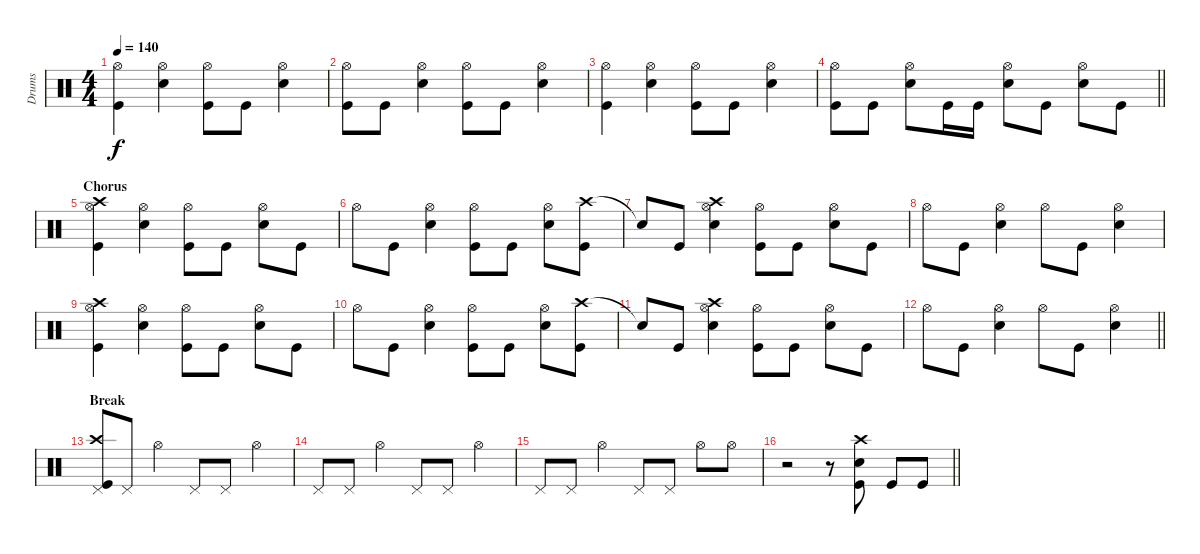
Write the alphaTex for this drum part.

\track ("Drums" "Drums") {instrument percussion}
\staff {score}
\articulation defaults
\ts (4 4)
\tempo 140
\clef neutral
\ks c
("Hi-Hat (open)" "Kick (hit)").4{dy f} ("Hi-Hat (open)" "Electric Snare (hit)").4 ("Hi-Hat (open)" "Kick (hit)").8 "Kick (hit)".8 ("Hi-Hat (open)" "Electric Snare (hit)").4 |
("Hi-Hat (open)" "Kick (hit)").8 "Kick (hit)".8 ("Hi-Hat (open)" "Electric Snare (hit)").4 ("Hi-Hat (open)" "Kick (hit)").8 "Kick (hit)".8 ("Hi-Hat (open)" "Electric Snare (hit)").4 |
("Hi-Hat (open)" "Kick (hit)").4 ("Hi-Hat (open)" "Electric Snare (hit)").4 ("Hi-Hat (open)" "Kick (hit)").8 "Kick (hit)".8 ("Hi-Hat (open)" "Electric Snare (hit)").4 |
\barLineRight lightlight
("Hi-Hat (open)" "Kick (hit)").8 "Kick (hit)".8 ("Hi-Hat (open)" "Electric Snare (hit)").8 "Kick (hit)".16 "Kick (hit)".16 ("Hi-Hat (open)" "Electric Snare (hit)").8 "Kick (hit)".8 ("Hi-Hat (open)" "Electric Snare (hit)").8 "Kick (hit)".8 |
\section ("" "Chorus")
("Crash high (hit)" "Hi-Hat (open)" "Kick (hit)").4 ("Hi-Hat (open)" "Electric Snare (hit)").4 ("Hi-Hat (open)" "Kick (hit)").8 "Kick (hit)".8 ("Hi-Hat (open)" "Electric Snare (hit)").8 "Kick (hit)".8 |
"Hi-Hat (open)".8 "Kick (hit)".8 ("Hi-Hat (open)" "Electric Snare (hit)").4 ("Hi-Hat (open)" "Kick (hit)").8 "Kick (hit)".8 ("Hi-Hat (open)" "Electric Snare (hit)").8 ("Crash high (hit)" "Kick (hit)").8 |
"Snare (hit)"{t}.8 "Kick (hit)".8 ("Crash high (hit)" "Hi-Hat (open)" "Electric Snare (hit)").4 ("Hi-Hat (open)" "Kick (hit)").8 "Kick (hit)".8 ("Hi-Hat (open)" "Electric Snare (hit)").8 "Kick (hit)".8 |
"Hi-Hat (open)".8 "Kick (hit)".8 ("Hi-Hat (open)" "Electric Snare (hit)").4 "Hi-Hat (open)".8 "Kick (hit)".8 ("Hi-Hat (open)" "Electric Snare (hit)").4 |
("Crash high (hit)" "Hi-Hat (open)" "Kick (hit)").4 ("Hi-Hat (open)" "Electric Snare (hit)").4 ("Hi-Hat (open)" "Kick (hit)").8 "Kick (hit)".8 ("Hi-Hat (open)" "Electric Snare (hit)").8 "Kick (hit)".8 |
"Hi-Hat (open)".8 "Kick (hit)".8 ("Hi-Hat (open)" "Electric Snare (hit)").4 ("Hi-Hat (open)" "Kick (hit)").8 "Kick (hit)".8 ("Hi-Hat (open)" "Electric Snare (hit)").8 ("Crash high (hit)" "Kick (hit)").8 |
"Snare (hit)"{t}.8 "Kick (hit)".8 ("Crash high (hit)" "Hi-Hat (open)" "Electric Snare (hit)").4 ("Hi-Hat (open)" "Kick (hit)").8 "Kick (hit)".8 ("Hi-Hat (open)" "Electric Snare (hit)").8 "Kick (hit)".8 |
\barLineRight lightlight "Hi-Hat (open)".8 "Kick (hit)".8
("Hi-Hat (open)" "Electric Snare (hit)").4 "Hi-Hat (open)".8 "Kick (hit)".8 ("Hi-Hat (open)" "Electric Snare (hit)").4 |
\section ("" "Break")
("Crash high (hit)" "Pedal Hi-Hat (hit)" "Kick (hit)").8 "Pedal Hi-Hat (hit)".8 "Hi-Hat (open)".4 "Pedal Hi-Hat (hit)".8 "Pedal Hi-Hat (hit)".8 "Hi-Hat (open)".4 |
"Pedal Hi-Hat (hit)".8 "Pedal Hi-Hat (hit)".8 "Hi-Hat (open)".4 "Pedal Hi-Hat (hit)".8 "Pedal Hi-Hat (hit)".8 "Hi-Hat (open)".4 |
"Pedal Hi-Hat (hit)".8 "Pedal Hi-Hat (hit)".8 "Hi-Hat (open)".4 "Pedal Hi-Hat (hit)".8 "Pedal Hi-Hat (hit)".8 "Hi-Hat (open)".8 "Hi-Hat (open)".8 |
\barLineRight lightlight
r.2 r.8 ("Crash high (hit)" "Electric Snare (hit)" "Kick (hit)").8 "Kick (hit)".8 "Kick (hit)".8
